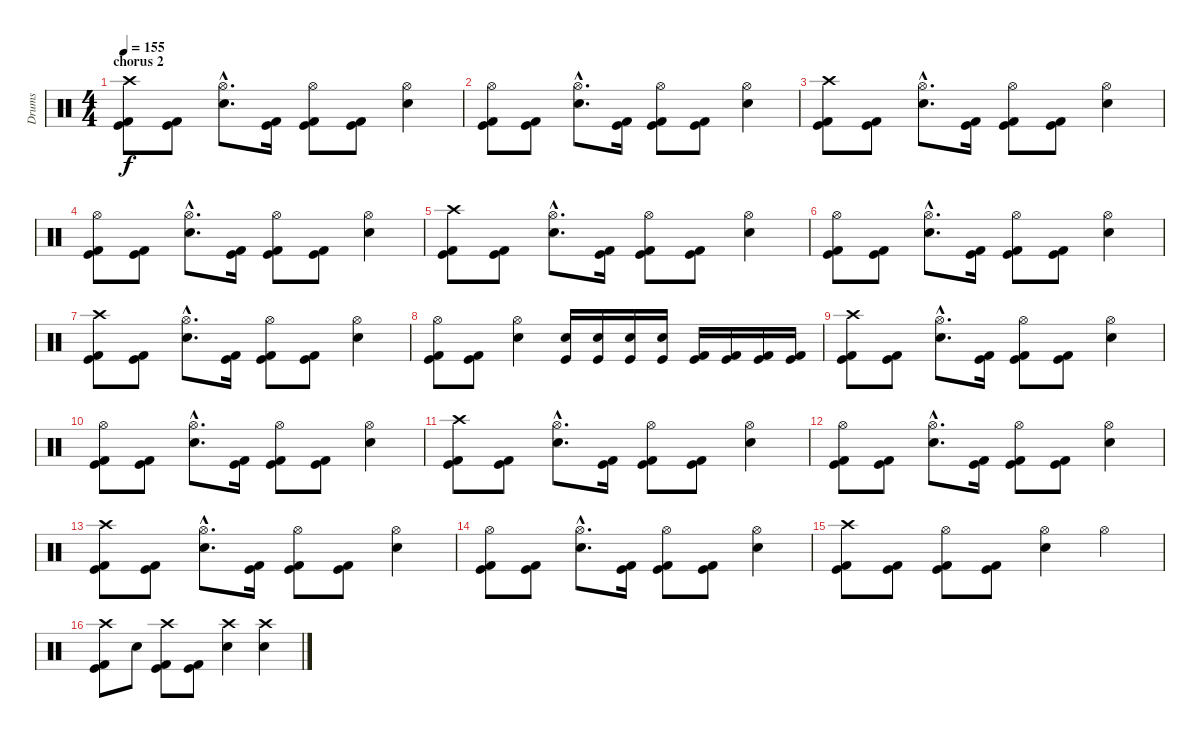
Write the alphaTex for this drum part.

\track ("Drums" "Drums") {instrument percussion}
\staff {score}
\articulation defaults
\ts (4 4)
\section ("" "chorus 2")
\tempo 155
\clef neutral
\ks c
("Crash high (hit)" "Kick (hit)" "Kick (hit) 2").8{dy f} ("Kick (hit)" "Kick (hit) 2").8 ("Hi-Hat (open)"{hac} "Electric Snare (hit)"{hac}).8{d} ("Kick (hit)" "Kick (hit) 2").16 ("Hi-Hat (open)" "Kick (hit)" "Kick (hit) 2").8 ("Kick (hit)" "Kick (hit) 2").8 ("Hi-Hat (open)" "Electric Snare (hit)").4 |
("Hi-Hat (open)" "Kick (hit)" "Kick (hit) 2").8 ("Kick (hit)" "Kick (hit) 2").8 ("Hi-Hat (open)"{hac} "Electric Snare (hit)"{hac}).8{d} ("Kick (hit)" "Kick (hit) 2").16 ("Hi-Hat (open)" "Kick (hit)" "Kick (hit) 2").8 ("Kick (hit)" "Kick (hit) 2").8 ("Hi-Hat (open)" "Electric Snare (hit)").4 |
("Crash high (hit)" "Kick (hit)" "Kick (hit) 2").8 ("Kick (hit)" "Kick (hit) 2").8 ("Hi-Hat (open)"{hac} "Electric Snare (hit)"{hac}).8{d} ("Kick (hit)" "Kick (hit) 2").16 ("Hi-Hat (open)" "Kick (hit)" "Kick (hit) 2").8 ("Kick (hit)" "Kick (hit) 2").8 ("Hi-Hat (open)" "Electric Snare (hit)").4 |
("Hi-Hat (open)" "Kick (hit)" "Kick (hit) 2").8 ("Kick (hit)" "Kick (hit) 2").8 ("Hi-Hat (open)"{hac} "Electric Snare (hit)"{hac}).8{d} ("Kick (hit)" "Kick (hit) 2").16 ("Hi-Hat (open)" "Kick (hit)" "Kick (hit) 2").8 ("Kick (hit)" "Kick (hit) 2").8 ("Hi-Hat (open)" "Electric Snare (hit)").4 |
("Crash high (hit)" "Kick (hit)" "Kick (hit) 2").8 ("Kick (hit)" "Kick (hit) 2").8 ("Hi-Hat (open)"{hac} "Electric Snare (hit)"{hac}).8{d} ("Kick (hit)" "Kick (hit) 2").16 ("Hi-Hat (open)" "Kick (hit)" "Kick (hit) 2").8 ("Kick (hit)" "Kick (hit) 2").8 ("Hi-Hat (open)" "Electric Snare (hit)").4 |
("Hi-Hat (open)" "Kick (hit)" "Kick (hit) 2").8 ("Kick (hit)" "Kick (hit) 2").8 ("Hi-Hat (open)"{hac} "Electric Snare (hit)"{hac}).8{d} ("Kick (hit)" "Kick (hit) 2").16 ("Hi-Hat (open)" "Kick (hit)" "Kick (hit) 2").8 ("Kick (hit)" "Kick (hit) 2").8 ("Hi-Hat (open)" "Electric Snare (hit)").4 |
("Crash high (hit)" "Kick (hit)" "Kick (hit) 2").8 ("Kick (hit)" "Kick (hit) 2").8 ("Hi-Hat (open)"{hac} "Electric Snare (hit)"{hac}).8{d} ("Kick (hit)" "Kick (hit) 2").16 ("Hi-Hat (open)" "Kick (hit)" "Kick (hit) 2").8 ("Kick (hit)" "Kick (hit) 2").8 ("Hi-Hat (open)" "Electric Snare (hit)").4 |
("Hi-Hat (open)" "Kick (hit)" "Kick (hit) 2").8 ("Kick (hit)" "Kick (hit) 2").8 ("Hi-Hat (open)" "Electric Snare (hit)").4 ("Kick (hit)" "Snare (hit) 2").16 ("Kick (hit)" "Snare (hit) 2").16 ("Kick (hit)" "Snare (hit) 2").16 ("Kick (hit)" "Snare (hit) 2").16 ("Kick (hit)" "Kick (hit) 2").16 ("Kick (hit)" "Kick (hit) 2").16 ("Kick (hit)" "Kick (hit) 2").16 ("Kick (hit)" "Kick (hit) 2").16 |
("Crash high (hit)" "Kick (hit)" "Kick (hit) 2").8 ("Kick (hit)" "Kick (hit) 2").8 ("Hi-Hat (open)"{hac} "Electric Snare (hit)"{hac}).8{d} ("Kick (hit)" "Kick (hit) 2").16 ("Hi-Hat (open)" "Kick (hit)" "Kick (hit) 2").8 ("Kick (hit)" "Kick (hit) 2").8 ("Hi-Hat (open)" "Electric Snare (hit)").4 |
("Hi-Hat (open)" "Kick (hit)" "Kick (hit) 2").8 ("Kick (hit)" "Kick (hit) 2").8 ("Hi-Hat (open)"{hac} "Electric Snare (hit)"{hac}).8{d} ("Kick (hit)" "Kick (hit) 2").16 ("Hi-Hat (open)" "Kick (hit)" "Kick (hit) 2").8 ("Kick (hit)" "Kick (hit) 2").8 ("Hi-Hat (open)" "Electric Snare (hit)").4 |
("Crash high (hit)" "Kick (hit)" "Kick (hit) 2").8 ("Kick (hit)" "Kick (hit) 2").8 ("Hi-Hat (open)"{hac} "Electric Snare (hit)"{hac}).8{d} ("Kick (hit)" "Kick (hit) 2").16 ("Hi-Hat (open)" "Kick (hit)" "Kick (hit) 2").8 ("Kick (hit)" "Kick (hit) 2").8 ("Hi-Hat (open)" "Electric Snare (hit)").4 |
("Hi-Hat (open)" "Kick (hit)" "Kick (hit) 2").8 ("Kick (hit)" "Kick (hit) 2").8 ("Hi-Hat (open)"{hac} "Electric Snare (hit)"{hac}).8{d} ("Kick (hit)" "Kick (hit) 2").16 ("Hi-Hat (open)" "Kick (hit)" "Kick (hit) 2").8 ("Kick (hit)" "Kick (hit) 2").8 ("Hi-Hat (open)" "Electric Snare (hit)").4 |
("Crash high (hit)" "Kick (hit)" "Kick (hit) 2").8 ("Kick (hit)" "Kick (hit) 2").8 ("Hi-Hat (open)"{hac} "Electric Snare (hit)"{hac}).8{d} ("Kick (hit)" "Kick (hit) 2").16 ("Hi-Hat (open)" "Kick (hit)" "Kick (hit) 2").8 ("Kick (hit)" "Kick (hit) 2").8 ("Hi-Hat (open)" "Electric Snare (hit)").4 |
("Hi-Hat (open)" "Kick (hit)" "Kick (hit) 2").8 ("Kick (hit)" "Kick (hit) 2").8 ("Hi-Hat (open)"{hac} "Electric Snare (hit)"{hac}).8{d} ("Kick (hit)" "Kick (hit) 2").16 ("Hi-Hat (open)" "Kick (hit)" "Kick (hit) 2").8 ("Kick (hit)" "Kick (hit) 2").8 ("Hi-Hat (open)" "Electric Snare (hit)").4 |
("Crash high (hit)" "Kick (hit)" "Kick (hit) 2").8 ("Kick (hit)" "Kick (hit) 2").8 ("Hi-Hat (open)" "Kick (hit)" "Kick (hit) 2").8 ("Kick (hit)" "Kick (hit) 2").8 ("Hi-Hat (open)" "Electric Snare (hit)").4 "Hi-Hat (open)".4 |
("Crash high (hit)" "Kick (hit)" "Kick (hit) 2").8 "Electric Snare (hit)".8 ("Crash high (hit)" "Kick (hit)" "Kick (hit) 2").8 ("Kick (hit)" "Kick (hit) 2").8 ("Crash high (hit)" "Electric Snare (hit)").4 ("Crash high (hit)" "Electric Snare (hit)").4
